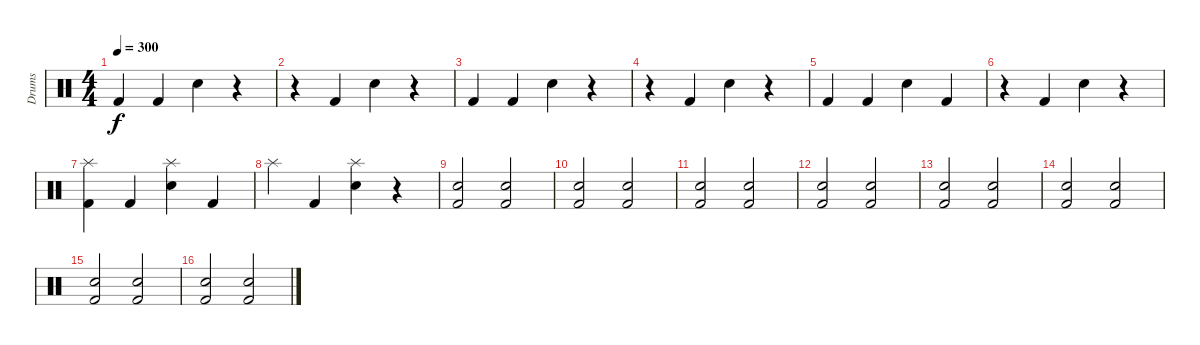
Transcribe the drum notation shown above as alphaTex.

\track ("Drums" "Drums") {instrument percussion}
\staff {score}
\articulation defaults
\ts (4 4)
\tempo 300
\clef neutral
\ks c "Kick (hit) 2".4{dy f} "Kick (hit) 2".4 "Snare (hit) 2".4
r.4 |
r.4 "Kick (hit) 2".4 "Snare (hit) 2".4 r.4 |
"Kick (hit) 2".4 "Kick (hit) 2".4 "Snare (hit) 2".4 r.4 |
r.4 "Kick (hit) 2".4 "Snare (hit) 2".4 r.4 |
"Kick (hit) 2".4 "Kick (hit) 2".4 "Snare (hit) 2".4 "Kick (hit) 2".4 |
r.4 "Kick (hit) 2".4 "Snare (hit) 2".4 r.4 |
("Splash (hit)" "Kick (hit) 2").4 "Kick (hit) 2".4 ("Splash (hit)" "Snare (hit) 2").4 "Kick (hit) 2".4 |
"Splash (hit)".4 "Kick (hit) 2".4 ("Splash (hit)" "Snare (hit) 2").4 r.4 |
("Electric Snare (hit)" "Kick (hit) 2").2 ("Electric Snare (hit)" "Kick (hit) 2").2 |
("Electric Snare (hit)" "Kick (hit) 2").2 ("Electric Snare (hit)" "Kick (hit) 2").2 |
("Electric Snare (hit)" "Kick (hit) 2").2 ("Electric Snare (hit)" "Kick (hit) 2").2 |
("Electric Snare (hit)" "Kick (hit) 2").2 ("Electric Snare (hit)" "Kick (hit) 2").2 |
("Electric Snare (hit)" "Kick (hit) 2").2 ("Electric Snare (hit)" "Kick (hit) 2").2 |
("Electric Snare (hit)" "Kick (hit) 2").2 ("Electric Snare (hit)" "Kick (hit) 2").2 |
("Electric Snare (hit)" "Kick (hit) 2").2 ("Electric Snare (hit)" "Kick (hit) 2").2 |
("Electric Snare (hit)" "Kick (hit) 2").2 ("Electric Snare (hit)" "Kick (hit) 2").2
